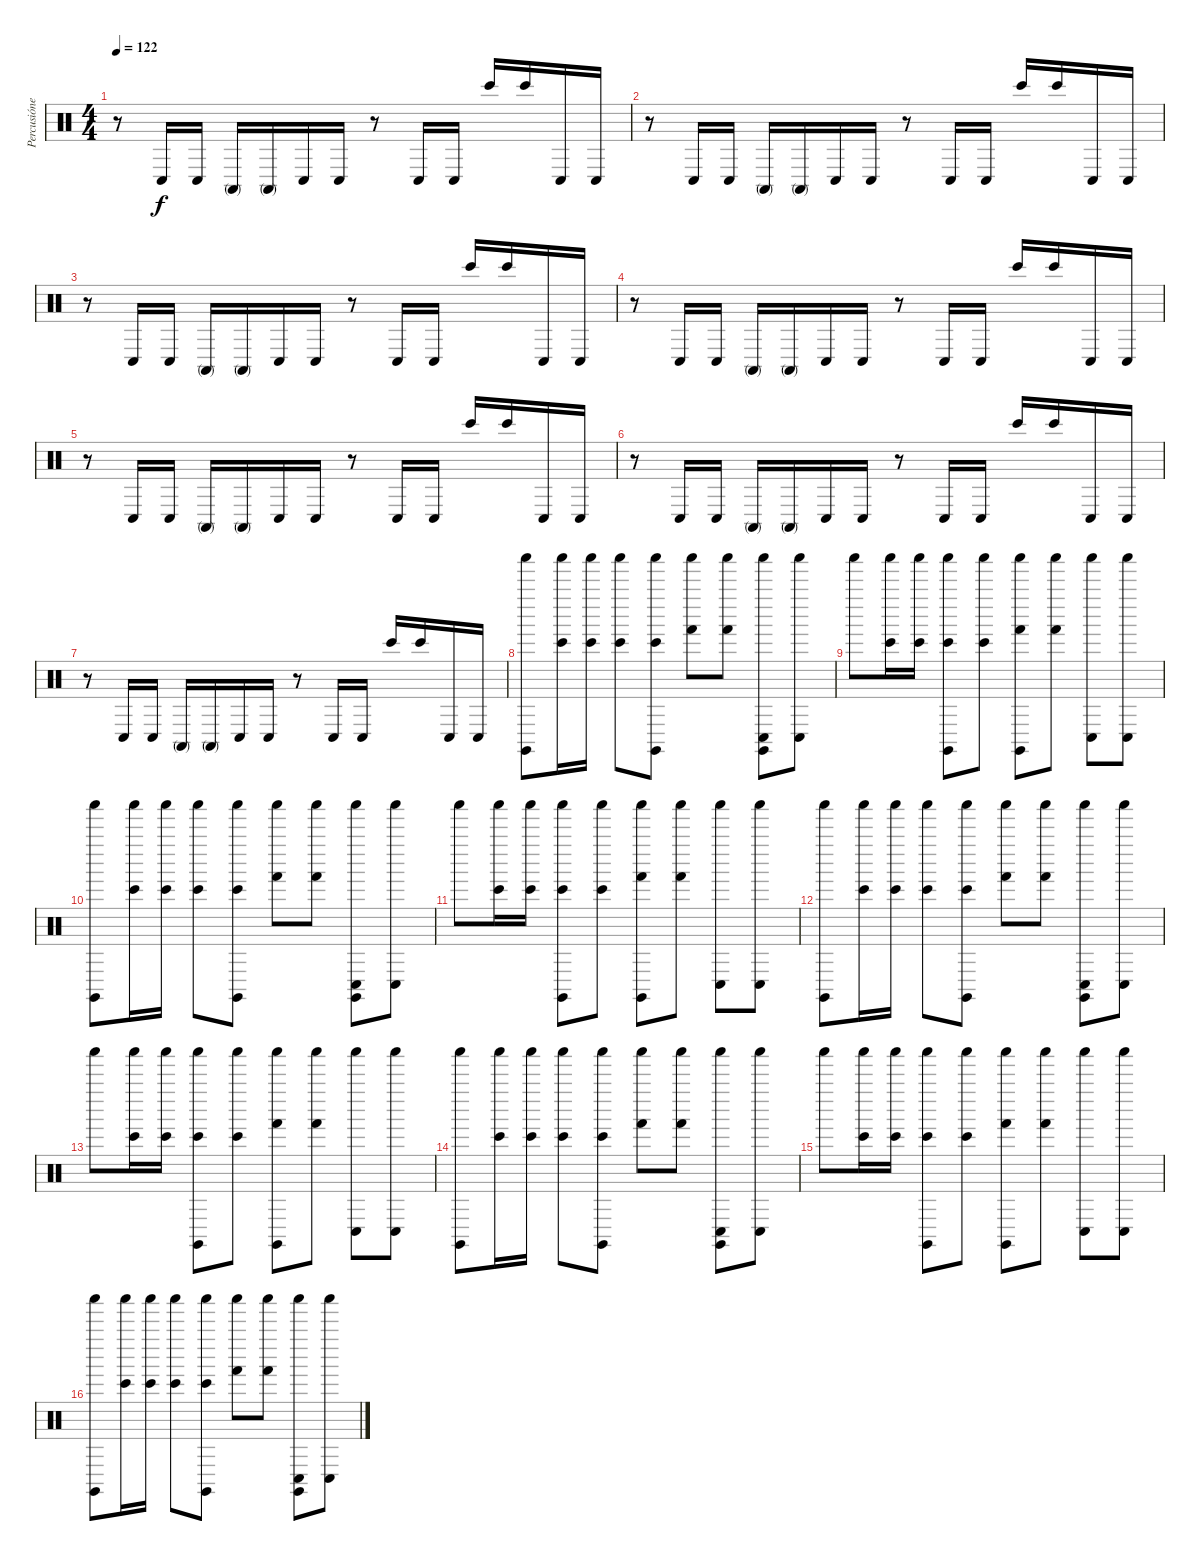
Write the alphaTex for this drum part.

\track ("Percusiónes" "Percusióne") {instrument percussion}
\staff {score}
\articulation defaults
\ts (4 4)
\tempo 122
\clef neutral
\ks c
r.8{dy f} "Conga low (hit)".16 "Conga low (hit)".16 "Conga high (mute)".16 "Conga high (mute)".16 "Conga low (hit)".16 "Conga low (hit)".16 r.8 "Conga low (hit)".16 "Conga low (hit)".16 "Bongo High (hit)".16 "Bongo High (hit)".16 "Conga low (hit)".16 "Conga low (hit)".16 |
r.8 "Conga low (hit)".16 "Conga low (hit)".16 "Conga high (mute)".16 "Conga high (mute)".16 "Conga low (hit)".16 "Conga low (hit)".16 r.8 "Conga low (hit)".16 "Conga low (hit)".16 "Bongo High (hit)".16 "Bongo High (hit)".16 "Conga low (hit)".16 "Conga low (hit)".16 |
r.8 "Conga low (hit)".16 "Conga low (hit)".16 "Conga high (mute)".16 "Conga high (mute)".16 "Conga low (hit)".16 "Conga low (hit)".16 r.8 "Conga low (hit)".16 "Conga low (hit)".16 "Bongo High (hit)".16 "Bongo High (hit)".16 "Conga low (hit)".16 "Conga low (hit)".16 |
r.8 "Conga low (hit)".16 "Conga low (hit)".16 "Conga high (mute)".16 "Conga high (mute)".16 "Conga low (hit)".16 "Conga low (hit)".16 r.8 "Conga low (hit)".16 "Conga low (hit)".16 "Bongo High (hit)".16 "Bongo High (hit)".16 "Conga low (hit)".16 "Conga low (hit)".16 |
r.8 "Conga low (hit)".16 "Conga low (hit)".16 "Conga high (mute)".16 "Conga high (mute)".16 "Conga low (hit)".16 "Conga low (hit)".16 r.8 "Conga low (hit)".16 "Conga low (hit)".16 "Bongo High (hit)".16 "Bongo High (hit)".16 "Conga low (hit)".16 "Conga low (hit)".16 |
r.8 "Conga low (hit)".16 "Conga low (hit)".16 "Conga high (mute)".16 "Conga high (mute)".16 "Conga low (hit)".16 "Conga low (hit)".16 r.8 "Conga low (hit)".16 "Conga low (hit)".16 "Bongo High (hit)".16 "Bongo High (hit)".16 "Conga low (hit)".16 "Conga low (hit)".16 |
r.8 "Conga low (hit)".16 "Conga low (hit)".16 "Conga high (mute)".16 "Conga high (mute)".16 "Conga low (hit)".16 "Conga low (hit)".16 r.8 "Conga low (hit)".16 "Conga low (hit)".16 "Bongo High (hit)".16 "Bongo High (hit)".16 "Conga low (hit)".16 "Conga low (hit)".16 |
("Shaker (hit)" "Claves (hit)").8 ("Bongo High (hit)" "Shaker (hit)").16 ("Bongo High (hit)" "Shaker (hit)").16 ("Bongo High (hit)" "Shaker (hit)").8 ("Bongo High (hit)" "Shaker (hit)" "Claves (hit)").8 ("Hand (hit)" "Shaker (hit)").8 ("Hand (hit)" "Shaker (hit)").8 ("Conga low (hit)" "Shaker (hit)" "Claves (hit)").8 ("Conga low (hit)" "Shaker (hit)").8 |
"Shaker (hit)".8 ("Bongo High (hit)" "Shaker (hit)").16 ("Bongo High (hit)" "Shaker (hit)").16 ("Bongo High (hit)" "Shaker (hit)" "Claves (hit)").8 ("Bongo High (hit)" "Shaker (hit)").8 ("Hand (hit)" "Shaker (hit)" "Claves (hit)").8 ("Hand (hit)" "Shaker (hit)").8 ("Conga low (hit)" "Shaker (hit)").8 ("Conga low (hit)" "Shaker (hit)").8 |
("Shaker (hit)" "Claves (hit)").8 ("Bongo High (hit)" "Shaker (hit)").16 ("Bongo High (hit)" "Shaker (hit)").16 ("Bongo High (hit)" "Shaker (hit)").8 ("Bongo High (hit)" "Shaker (hit)" "Claves (hit)").8 ("Hand (hit)" "Shaker (hit)").8 ("Hand (hit)" "Shaker (hit)").8 ("Conga low (hit)" "Shaker (hit)" "Claves (hit)").8 ("Conga low (hit)" "Shaker (hit)").8 |
"Shaker (hit)".8 ("Bongo High (hit)" "Shaker (hit)").16 ("Bongo High (hit)" "Shaker (hit)").16 ("Bongo High (hit)" "Shaker (hit)" "Claves (hit)").8 ("Bongo High (hit)" "Shaker (hit)").8 ("Hand (hit)" "Shaker (hit)" "Claves (hit)").8 ("Hand (hit)" "Shaker (hit)").8 ("Conga low (hit)" "Shaker (hit)").8 ("Conga low (hit)" "Shaker (hit)").8 |
("Shaker (hit)" "Claves (hit)").8 ("Bongo High (hit)" "Shaker (hit)").16 ("Bongo High (hit)" "Shaker (hit)").16 ("Bongo High (hit)" "Shaker (hit)").8 ("Bongo High (hit)" "Shaker (hit)" "Claves (hit)").8 ("Hand (hit)" "Shaker (hit)").8 ("Hand (hit)" "Shaker (hit)").8 ("Conga low (hit)" "Shaker (hit)" "Claves (hit)").8 ("Conga low (hit)" "Shaker (hit)").8 |
"Shaker (hit)".8 ("Bongo High (hit)" "Shaker (hit)").16 ("Bongo High (hit)" "Shaker (hit)").16 ("Bongo High (hit)" "Shaker (hit)" "Claves (hit)").8 ("Bongo High (hit)" "Shaker (hit)").8 ("Hand (hit)" "Shaker (hit)" "Claves (hit)").8 ("Hand (hit)" "Shaker (hit)").8 ("Conga low (hit)" "Shaker (hit)").8 ("Conga low (hit)" "Shaker (hit)").8 |
("Shaker (hit)" "Claves (hit)").8 ("Bongo High (hit)" "Shaker (hit)").16 ("Bongo High (hit)" "Shaker (hit)").16 ("Bongo High (hit)" "Shaker (hit)").8 ("Bongo High (hit)" "Shaker (hit)" "Claves (hit)").8 ("Hand (hit)" "Shaker (hit)").8 ("Hand (hit)" "Shaker (hit)").8 ("Conga low (hit)" "Shaker (hit)" "Claves (hit)").8 ("Conga low (hit)" "Shaker (hit)").8 |
"Shaker (hit)".8 ("Bongo High (hit)" "Shaker (hit)").16 ("Bongo High (hit)" "Shaker (hit)").16 ("Bongo High (hit)" "Shaker (hit)" "Claves (hit)").8 ("Bongo High (hit)" "Shaker (hit)").8 ("Hand (hit)" "Shaker (hit)" "Claves (hit)").8 ("Hand (hit)" "Shaker (hit)").8 ("Conga low (hit)" "Shaker (hit)").8 ("Conga low (hit)" "Shaker (hit)").8 |
("Shaker (hit)" "Claves (hit)").8 ("Bongo High (hit)" "Shaker (hit)").16 ("Bongo High (hit)" "Shaker (hit)").16 ("Bongo High (hit)" "Shaker (hit)").8 ("Bongo High (hit)" "Shaker (hit)" "Claves (hit)").8 ("Hand (hit)" "Shaker (hit)").8 ("Hand (hit)" "Shaker (hit)").8 ("Conga low (hit)" "Shaker (hit)" "Claves (hit)").8 ("Conga low (hit)" "Shaker (hit)").8
